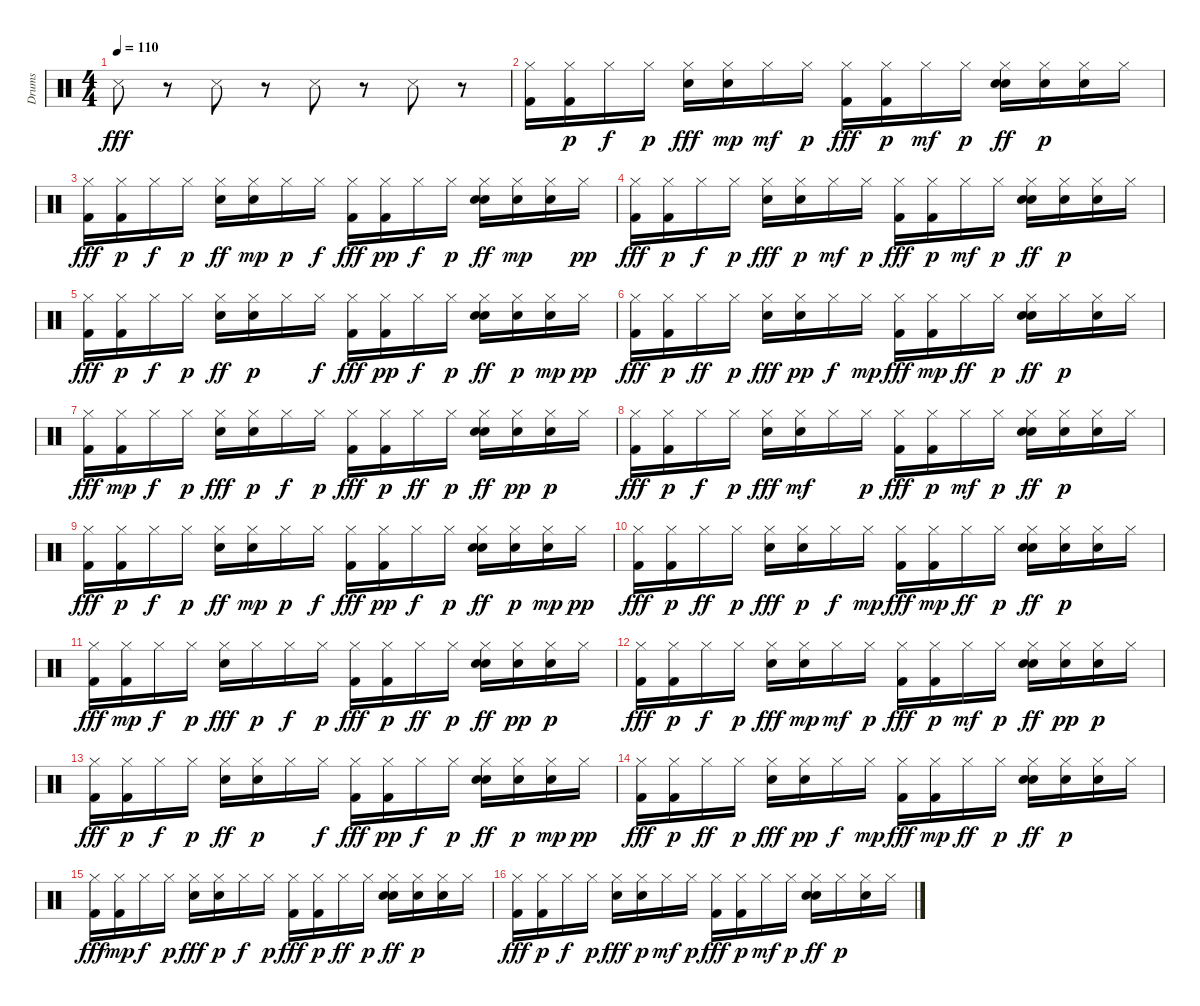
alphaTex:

\track ("Drums" "Drums") {instrument percussion}
\staff {score}
\articulation defaults
\ts (4 4)
\tempo 110
\clef neutral
\ks c "Snare (side stick) 3".8{dy fff}
r.8 "Snare (side stick) 3".8 r.8 "Snare (side stick) 3".8 r.8 "Snare (side stick) 3".8 r.8 |
("Hi-Hat (closed)" "Kick (hit) 2").16 ("Hi-Hat (closed)" "Kick (hit) 2").16{dy p} "Hi-Hat (closed)".16{dy f} "Hi-Hat (closed)".16{dy p} ("Hi-Hat (closed)" "Snare (hit) 2").16{dy fff} ("Hi-Hat (closed)" "Snare (hit) 2").16{dy mp} "Hi-Hat (closed)".16{dy mf} "Hi-Hat (closed)".16{dy p} ("Hi-Hat (closed)" "Kick (hit) 2").16{dy fff} ("Hi-Hat (closed)" "Kick (hit) 2").16{dy p} "Hi-Hat (closed)".16{dy mf} "Hi-Hat (closed)".16{dy p} ("Hi-Hat (closed)" "Snare (hit) 2" "Hand Clap (hit)").16{dy ff} ("Hi-Hat (closed)" "Snare (hit) 2").16{dy p} ("Hi-Hat (closed)" "Hand Clap (hit)").16 "Hi-Hat (closed)".16 |
("Hi-Hat (closed)" "Kick (hit) 2").16{dy fff} ("Hi-Hat (closed)" "Kick (hit) 2").16{dy p} "Hi-Hat (closed)".16{dy f} "Hi-Hat (closed)".16{dy p} ("Hi-Hat (closed)" "Snare (hit) 2").16{dy ff} ("Hi-Hat (closed)" "Snare (hit) 2").16{dy mp} "Hi-Hat (closed)".16{dy p} "Hi-Hat (closed)".16{dy f} ("Hi-Hat (closed)" "Kick (hit) 2").16{dy fff} ("Hi-Hat (closed)" "Kick (hit) 2").16{dy pp} "Hi-Hat (closed)".16{dy f} "Hi-Hat (closed)".16{dy p} ("Hi-Hat (closed)" "Snare (hit) 2" "Hand Clap (hit)").16{dy ff} ("Hi-Hat (closed)" "Snare (hit) 2").16{dy mp} ("Hi-Hat (closed)" "Hand Clap (hit)").16 "Hi-Hat (closed)".16{dy pp} |
("Hi-Hat (closed)" "Kick (hit) 2").16{dy fff} ("Hi-Hat (closed)" "Kick (hit) 2").16{dy p} "Hi-Hat (closed)".16{dy f} "Hi-Hat (closed)".16{dy p} ("Hi-Hat (closed)" "Snare (hit) 2").16{dy fff} ("Hi-Hat (closed)" "Snare (hit) 2").16{dy p} "Hi-Hat (closed)".16{dy mf} "Hi-Hat (closed)".16{dy p} ("Hi-Hat (closed)" "Kick (hit) 2").16{dy fff} ("Hi-Hat (closed)" "Kick (hit) 2").16{dy p} "Hi-Hat (closed)".16{dy mf} "Hi-Hat (closed)".16{dy p} ("Hi-Hat (closed)" "Snare (hit) 2" "Hand Clap (hit)").16{dy ff} ("Hi-Hat (closed)" "Snare (hit) 2").16{dy p} ("Hi-Hat (closed)" "Hand Clap (hit)").16 "Hi-Hat (closed)".16 |
("Hi-Hat (closed)" "Kick (hit) 2").16{dy fff} ("Hi-Hat (closed)" "Kick (hit) 2").16{dy p} "Hi-Hat (closed)".16{dy f} "Hi-Hat (closed)".16{dy p} ("Hi-Hat (closed)" "Snare (hit) 2").16{dy ff} ("Hi-Hat (closed)" "Snare (hit) 2").16{dy p} "Hi-Hat (closed)".16 "Hi-Hat (closed)".16{dy f} ("Hi-Hat (closed)" "Kick (hit) 2").16{dy fff} ("Hi-Hat (closed)" "Kick (hit) 2").16{dy pp} "Hi-Hat (closed)".16{dy f} "Hi-Hat (closed)".16{dy p} ("Hi-Hat (closed)" "Snare (hit) 2" "Hand Clap (hit)").16{dy ff} ("Hi-Hat (closed)" "Snare (hit) 2").16{dy p} ("Hi-Hat (closed)" "Hand Clap (hit)").16{dy mp} "Hi-Hat (closed)".16{dy pp} |
("Hi-Hat (closed)" "Kick (hit) 2").16{dy fff} ("Hi-Hat (closed)" "Kick (hit) 2").16{dy p} "Hi-Hat (closed)".16{dy ff} "Hi-Hat (closed)".16{dy p} ("Hi-Hat (closed)" "Snare (hit) 2").16{dy fff} ("Hi-Hat (closed)" "Snare (hit) 2").16{dy pp} "Hi-Hat (closed)".16{dy f} "Hi-Hat (closed)".16{dy mp} ("Hi-Hat (closed)" "Kick (hit) 2").16{dy fff} ("Hi-Hat (closed)" "Kick (hit) 2").16{dy mp} "Hi-Hat (closed)".16{dy ff} "Hi-Hat (closed)".16{dy p} ("Hi-Hat (closed)" "Snare (hit) 2" "Hand Clap (hit)").16{dy ff} "Hi-Hat (closed)".16{dy p} ("Hi-Hat (closed)" "Hand Clap (hit)").16 "Hi-Hat (closed)".16 |
("Hi-Hat (closed)" "Kick (hit) 2").16{dy fff} ("Hi-Hat (closed)" "Kick (hit) 2").16{dy mp} "Hi-Hat (closed)".16{dy f} "Hi-Hat (closed)".16{dy p} ("Hi-Hat (closed)" "Snare (hit) 2").16{dy fff} ("Hi-Hat (closed)" "Snare (hit) 2").16{dy p} "Hi-Hat (closed)".16{dy f} "Hi-Hat (closed)".16{dy p} ("Hi-Hat (closed)" "Kick (hit) 2").16{dy fff} ("Hi-Hat (closed)" "Kick (hit) 2").16{dy p} "Hi-Hat (closed)".16{dy ff} "Hi-Hat (closed)".16{dy p} ("Hi-Hat (closed)" "Snare (hit) 2" "Hand Clap (hit)").16{dy ff} ("Hi-Hat (closed)" "Snare (hit) 2").16{dy pp} ("Hi-Hat (closed)" "Hand Clap (hit)").16{dy p} "Hi-Hat (closed)".16 |
("Hi-Hat (closed)" "Kick (hit) 2").16{dy fff} ("Hi-Hat (closed)" "Kick (hit) 2").16{dy p} "Hi-Hat (closed)".16{dy f} "Hi-Hat (closed)".16{dy p} ("Hi-Hat (closed)" "Snare (hit) 2").16{dy fff} ("Hi-Hat (closed)" "Snare (hit) 2").16{dy mf} "Hi-Hat (closed)".16 "Hi-Hat (closed)".16{dy p} ("Hi-Hat (closed)" "Kick (hit) 2").16{dy fff} ("Hi-Hat (closed)" "Kick (hit) 2").16{dy p} "Hi-Hat (closed)".16{dy mf} "Hi-Hat (closed)".16{dy p} ("Hi-Hat (closed)" "Snare (hit) 2" "Hand Clap (hit)").16{dy ff} ("Hi-Hat (closed)" "Snare (hit) 2").16{dy p} ("Hi-Hat (closed)" "Hand Clap (hit)").16 "Hi-Hat (closed)".16 |
("Hi-Hat (closed)" "Kick (hit) 2").16{dy fff} ("Hi-Hat (closed)" "Kick (hit) 2").16{dy p} "Hi-Hat (closed)".16{dy f} "Hi-Hat (closed)".16{dy p} ("Hi-Hat (closed)" "Snare (hit) 2").16{dy ff} ("Hi-Hat (closed)" "Snare (hit) 2").16{dy mp} "Hi-Hat (closed)".16{dy p} "Hi-Hat (closed)".16{dy f} ("Hi-Hat (closed)" "Kick (hit) 2").16{dy fff} ("Hi-Hat (closed)" "Kick (hit) 2").16{dy pp} "Hi-Hat (closed)".16{dy f} "Hi-Hat (closed)".16{dy p} ("Hi-Hat (closed)" "Snare (hit) 2" "Hand Clap (hit)").16{dy ff} ("Hi-Hat (closed)" "Snare (hit) 2").16{dy p} ("Hi-Hat (closed)" "Hand Clap (hit)").16{dy mp} "Hi-Hat (closed)".16{dy pp} |
("Hi-Hat (closed)" "Kick (hit) 2").16{dy fff} ("Hi-Hat (closed)" "Kick (hit) 2").16{dy p} "Hi-Hat (closed)".16{dy ff} "Hi-Hat (closed)".16{dy p} ("Hi-Hat (closed)" "Snare (hit) 2").16{dy fff} ("Hi-Hat (closed)" "Snare (hit) 2").16{dy p} "Hi-Hat (closed)".16{dy f} "Hi-Hat (closed)".16{dy mp} ("Hi-Hat (closed)" "Kick (hit) 2").16{dy fff} ("Hi-Hat (closed)" "Kick (hit) 2").16{dy mp} "Hi-Hat (closed)".16{dy ff} "Hi-Hat (closed)".16{dy p} ("Hi-Hat (closed)" "Snare (hit) 2" "Hand Clap (hit)").16{dy ff} ("Hi-Hat (closed)" "Snare (hit) 2").16{dy p} ("Hi-Hat (closed)" "Hand Clap (hit)").16 "Hi-Hat (closed)".16 |
("Hi-Hat (closed)" "Kick (hit) 2").16{dy fff} ("Hi-Hat (closed)" "Kick (hit) 2").16{dy mp} "Hi-Hat (closed)".16{dy f} "Hi-Hat (closed)".16{dy p} ("Hi-Hat (closed)" "Snare (hit) 2").16{dy fff} "Hi-Hat (closed)".16{dy p} "Hi-Hat (closed)".16{dy f} "Hi-Hat (closed)".16{dy p} ("Hi-Hat (closed)" "Kick (hit) 2").16{dy fff} ("Hi-Hat (closed)" "Kick (hit) 2").16{dy p} "Hi-Hat (closed)".16{dy ff} "Hi-Hat (closed)".16{dy p} ("Hi-Hat (closed)" "Snare (hit) 2" "Hand Clap (hit)").16{dy ff} ("Hi-Hat (closed)" "Snare (hit) 2").16{dy pp} ("Hi-Hat (closed)" "Hand Clap (hit)").16{dy p} "Hi-Hat (closed)".16 |
("Hi-Hat (closed)" "Kick (hit) 2").16{dy fff} ("Hi-Hat (closed)" "Kick (hit) 2").16{dy p} "Hi-Hat (closed)".16{dy f} "Hi-Hat (closed)".16{dy p} ("Hi-Hat (closed)" "Snare (hit) 2").16{dy fff} ("Hi-Hat (closed)" "Snare (hit) 2").16{dy mp} "Hi-Hat (closed)".16{dy mf} "Hi-Hat (closed)".16{dy p} ("Hi-Hat (closed)" "Kick (hit) 2").16{dy fff} ("Hi-Hat (closed)" "Kick (hit) 2").16{dy p} "Hi-Hat (closed)".16{dy mf} "Hi-Hat (closed)".16{dy p} ("Hi-Hat (closed)" "Snare (hit) 2" "Hand Clap (hit)").16{dy ff} ("Hi-Hat (closed)" "Snare (hit) 2").16{dy pp} ("Hi-Hat (closed)" "Hand Clap (hit)").16{dy p} "Hi-Hat (closed)".16 |
("Hi-Hat (closed)" "Kick (hit) 2").16{dy fff} ("Hi-Hat (closed)" "Kick (hit) 2").16{dy p} "Hi-Hat (closed)".16{dy f} "Hi-Hat (closed)".16{dy p} ("Hi-Hat (closed)" "Snare (hit) 2").16{dy ff} ("Hi-Hat (closed)" "Snare (hit) 2").16{dy p} "Hi-Hat (closed)".16 "Hi-Hat (closed)".16{dy f} ("Hi-Hat (closed)" "Kick (hit) 2").16{dy fff} ("Hi-Hat (closed)" "Kick (hit) 2").16{dy pp} "Hi-Hat (closed)".16{dy f} "Hi-Hat (closed)".16{dy p} ("Hi-Hat (closed)" "Snare (hit) 2" "Hand Clap (hit)").16{dy ff} ("Hi-Hat (closed)" "Snare (hit) 2").16{dy p} ("Hi-Hat (closed)" "Hand Clap (hit)").16{dy mp} "Hi-Hat (closed)".16{dy pp} |
("Hi-Hat (closed)" "Kick (hit) 2").16{dy fff} ("Hi-Hat (closed)" "Kick (hit) 2").16{dy p} "Hi-Hat (closed)".16{dy ff} "Hi-Hat (closed)".16{dy p} ("Hi-Hat (closed)" "Snare (hit) 2").16{dy fff} ("Hi-Hat (closed)" "Snare (hit) 2").16{dy pp} "Hi-Hat (closed)".16{dy f} "Hi-Hat (closed)".16{dy mp} ("Hi-Hat (closed)" "Kick (hit) 2").16{dy fff} ("Hi-Hat (closed)" "Kick (hit) 2").16{dy mp} "Hi-Hat (closed)".16{dy ff} "Hi-Hat (closed)".16{dy p} ("Hi-Hat (closed)" "Snare (hit) 2" "Hand Clap (hit)").16{dy ff} ("Hi-Hat (closed)" "Snare (hit) 2").16{dy p} ("Hi-Hat (closed)" "Hand Clap (hit)").16 "Hi-Hat (closed)".16 |
("Hi-Hat (closed)" "Kick (hit) 2").16{dy fff} ("Hi-Hat (closed)" "Kick (hit) 2").16{dy mp} "Hi-Hat (closed)".16{dy f} "Hi-Hat (closed)".16{dy p} ("Hi-Hat (closed)" "Snare (hit) 2").16{dy fff} ("Hi-Hat (closed)" "Snare (hit) 2").16{dy p} "Hi-Hat (closed)".16{dy f} "Hi-Hat (closed)".16{dy p} ("Hi-Hat (closed)" "Kick (hit) 2").16{dy fff} ("Hi-Hat (closed)" "Kick (hit) 2").16{dy p} "Hi-Hat (closed)".16{dy ff} "Hi-Hat (closed)".16{dy p} ("Hi-Hat (closed)" "Snare (hit) 2" "Hand Clap (hit)").16{dy ff} ("Hi-Hat (closed)" "Snare (hit) 2").16{dy p} ("Hi-Hat (closed)" "Hand Clap (hit)").16 "Hi-Hat (closed)".16 |
("Hi-Hat (closed)" "Kick (hit) 2").16{dy fff} ("Hi-Hat (closed)" "Kick (hit) 2").16{dy p} "Hi-Hat (closed)".16{dy f} "Hi-Hat (closed)".16{dy p} ("Hi-Hat (closed)" "Snare (hit) 2").16{dy fff} ("Hi-Hat (closed)" "Snare (hit) 2").16{dy p} "Hi-Hat (closed)".16{dy mf} "Hi-Hat (closed)".16{dy p} ("Hi-Hat (closed)" "Kick (hit) 2").16{dy fff} ("Hi-Hat (closed)" "Kick (hit) 2").16{dy p} "Hi-Hat (closed)".16{dy mf} "Hi-Hat (closed)".16{dy p} ("Hi-Hat (closed)" "Snare (hit) 2" "Hand Clap (hit)").16{dy ff} "Hi-Hat (closed)".16{dy p} ("Hi-Hat (closed)" "Hand Clap (hit)").16 "Hi-Hat (closed)".16
